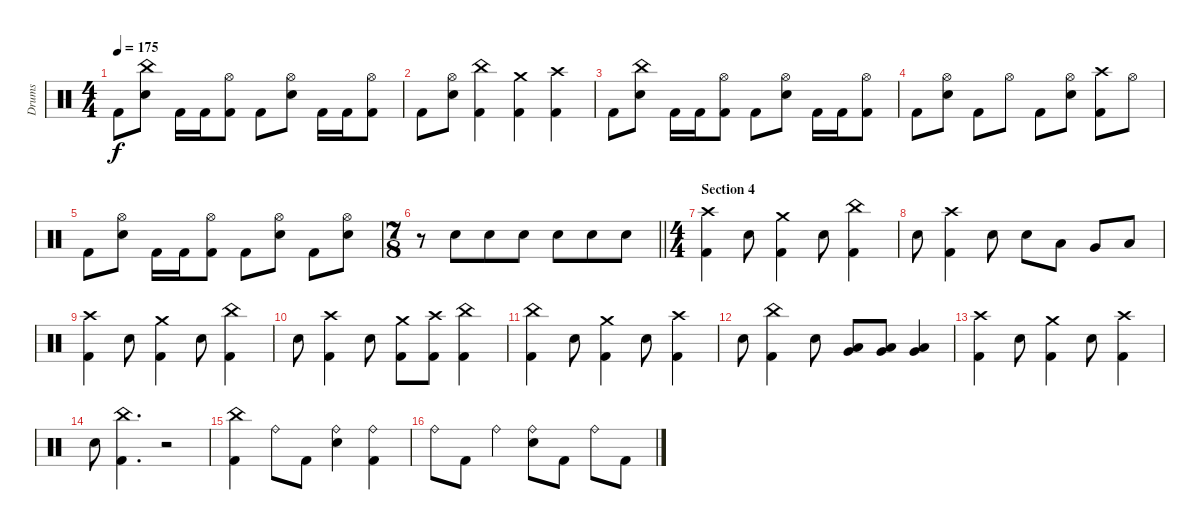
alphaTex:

\track ("Drums" "Drums") {instrument percussion}
\staff {score}
\articulation defaults
\ts (4 4)
\tempo 175
\clef neutral
\ks c "Kick (hit) 2".8{dy f}
("China (hit)" "Snare (hit) 2").8 "Kick (hit) 2".16 "Kick (hit) 2".16 ("Hi-Hat (open)" "Kick (hit) 2").8 "Kick (hit) 2".8 ("Hi-Hat (open)" "Snare (hit) 2").8 "Kick (hit) 2".16 "Kick (hit) 2".16 ("Hi-Hat (open)" "Kick (hit) 2").8 |
"Kick (hit) 2".8 ("Hi-Hat (open)" "Snare (hit) 2").8 ("China (hit)" "Kick (hit) 2").4 ("Crash medium (hit)" "Kick (hit) 2").4 ("Crash high (hit)" "Kick (hit) 2").4 |
"Kick (hit) 2".8 ("China (hit)" "Snare (hit) 2").8 "Kick (hit) 2".16 "Kick (hit) 2".16 ("Hi-Hat (open)" "Kick (hit) 2").8 "Kick (hit) 2".8 ("Hi-Hat (open)" "Snare (hit) 2").8 "Kick (hit) 2".16 "Kick (hit) 2".16 ("Hi-Hat (open)" "Kick (hit) 2").8 |
"Kick (hit) 2".8 ("Hi-Hat (open)" "Snare (hit) 2").8 "Kick (hit) 2".8 "Hi-Hat (open)".8 "Kick (hit) 2".8 ("Hi-Hat (open)" "Snare (hit) 2").8 ("Crash high (hit)" "Kick (hit) 2").8 "Hi-Hat (open)".8 |
"Kick (hit) 2".8 ("Hi-Hat (open)" "Snare (hit) 2").8 "Kick (hit) 2".16 "Kick (hit) 2".16 ("Hi-Hat (open)" "Kick (hit) 2").8 "Kick (hit) 2".8 ("Hi-Hat (open)" "Snare (hit) 2").8 "Kick (hit) 2".8 ("Hi-Hat (open)" "Snare (hit) 2").8 |
\ts (7 8)
\barLineRight lightlight
r.8 "Snare (hit) 2".8 "Snare (hit) 2".8 "Snare (hit) 2".8 "Snare (hit) 2".8 "Snare (hit) 2".8 "Snare (hit) 2".8 |
\ts (4 4)
\section ("" "Section 4")
("Crash high (hit)" "Kick (hit) 2").4 "Snare (hit) 2".8 ("Crash medium (hit)" "Kick (hit) 2").4 "Snare (hit) 2".8 ("China (hit)" "Kick (hit) 2").4 |
"Snare (hit) 2".8 ("Crash high (hit)" "Kick (hit) 2").4 "Snare (hit) 2".8 "Snare (hit) 2".8 "Low Tom (hit)".8 "Very Low Tom (hit)".8 "Low Floor Tom (hit)".8 |
("Crash high (hit)" "Kick (hit) 2").4 "Snare (hit) 2".8 ("Crash medium (hit)" "Kick (hit) 2").4 "Snare (hit) 2".8 ("China (hit)" "Kick (hit) 2").4 |
"Snare (hit) 2".8 ("Crash high (hit)" "Kick (hit) 2").4 "Snare (hit) 2".8 ("Crash medium (hit)" "Kick (hit) 2").8 ("Crash high (hit)" "Kick (hit) 2").8 ("China (hit)" "Kick (hit) 2").4 |
("China (hit)" "Kick (hit) 2").4 "Snare (hit) 2".8 ("Crash medium (hit)" "Kick (hit) 2").4 "Snare (hit) 2".8 ("Crash high (hit)" "Kick (hit) 2").4 |
"Snare (hit) 2".8 ("China (hit)" "Kick (hit) 2").4 "Snare (hit) 2".8 ("Very Low Tom (hit)" "Low Floor Tom (hit)").8 ("Very Low Tom (hit)" "Low Floor Tom (hit)").8 ("Very Low Tom (hit)" "Low Floor Tom (hit)").4 |
("Crash high (hit)" "Kick (hit) 2").4 "Snare (hit) 2".8 ("Crash medium (hit)" "Kick (hit) 2").4 "Snare (hit) 2".8 ("Crash high (hit)" "Kick (hit) 2").4 |
"Snare (hit) 2".8 ("China (hit)" "Kick (hit) 2").4{d} r.2 |
("China (hit)" "Kick (hit) 2").4 "Ride (bell)".8 "Kick (hit) 2".8 ("Ride (bell)" "Snare (hit) 2").4 ("Ride (bell)" "Kick (hit) 2").4 |
"Ride (bell)".8 "Kick (hit) 2".8 "Ride (bell)".4 ("Ride (bell)" "Snare (hit) 2").8 "Kick (hit) 2".8 "Ride (bell)".8 "Kick (hit) 2".8
